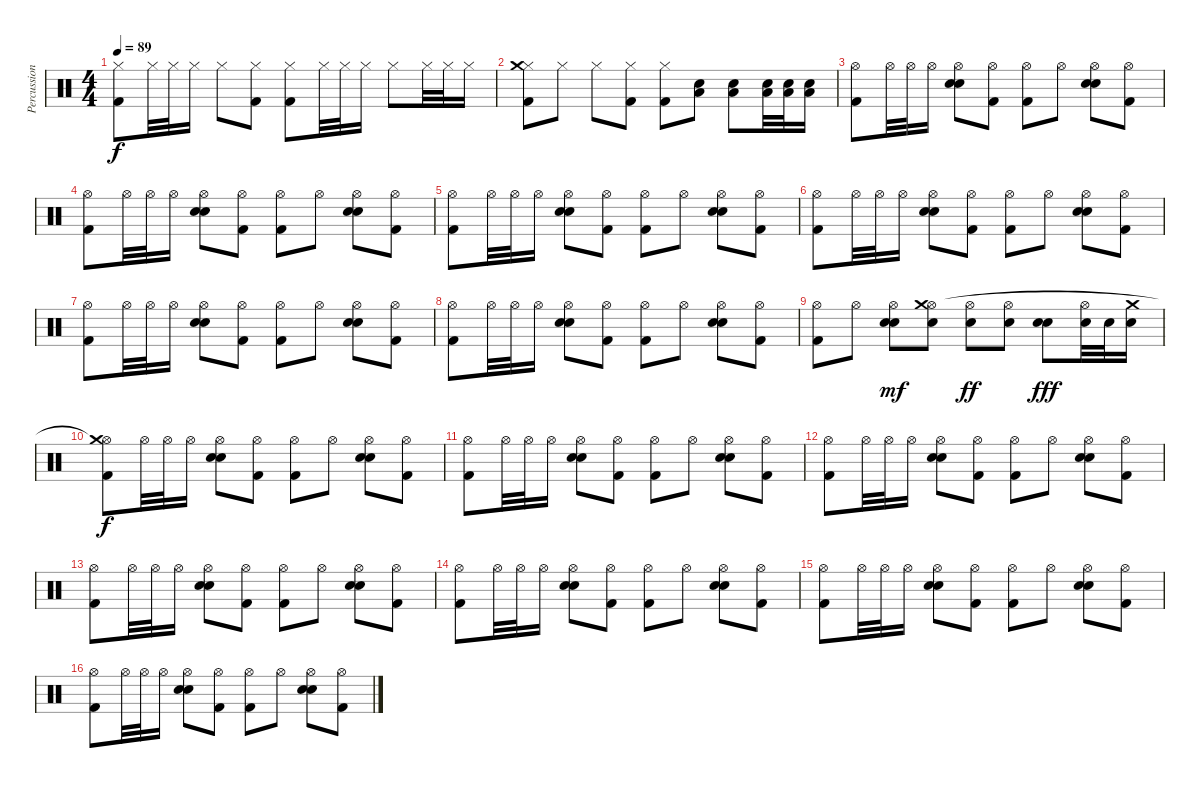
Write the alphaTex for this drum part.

\track ("Percussions" "Percussion") {instrument percussion}
\staff {score}
\articulation defaults
\ts (4 4)
\tempo 89
\clef neutral
\ks c
("Hi-Hat (closed)" "Kick (hit) 2").8{dy f} "Hi-Hat (closed)".32 "Hi-Hat (closed)".32 "Hi-Hat (closed)".16 "Hi-Hat (closed)".8 ("Hi-Hat (closed)" "Kick (hit) 2").8 ("Hi-Hat (closed)" "Kick (hit) 2").8 "Hi-Hat (closed)".32 "Hi-Hat (closed)".32 "Hi-Hat (closed)".16 "Hi-Hat (closed)".8 "Hi-Hat (closed)".32 "Hi-Hat (closed)".32 "Hi-Hat (closed)".16 |
("Hi-Hat (closed)" "Kick (hit) 2" "Crash medium (hit)").8 "Hi-Hat (closed)".8 "Hi-Hat (closed)".8 ("Hi-Hat (closed)" "Kick (hit) 2").8 ("Hi-Hat (closed)" "Kick (hit) 2").8 ("Snare (hit) 2" "Low Floor Tom (hit)").8 ("Snare (hit) 2" "Low Floor Tom (hit)").8 ("Snare (hit) 2" "Low Floor Tom (hit)").32 ("Snare (hit) 2" "Low Floor Tom (hit)").32 ("Snare (hit) 2" "Low Floor Tom (hit)").16 |
("Hi-Hat (open)" "Kick (hit) 2").8 "Hi-Hat (open)".32 "Hi-Hat (open)".32 "Hi-Hat (open)".16 ("Snare (hit) 2" "Electric Snare (hit)" "Hi-Hat (open)").8 ("Hi-Hat (open)" "Kick (hit) 2").8 ("Hi-Hat (open)" "Kick (hit) 2").8 "Hi-Hat (open)".8 ("Snare (hit) 2" "Electric Snare (hit)" "Hi-Hat (open)").8 ("Hi-Hat (open)" "Kick (hit) 2").8 |
("Hi-Hat (open)" "Kick (hit) 2").8 "Hi-Hat (open)".32 "Hi-Hat (open)".32 "Hi-Hat (open)".16 ("Snare (hit) 2" "Electric Snare (hit)" "Hi-Hat (open)").8 ("Hi-Hat (open)" "Kick (hit) 2").8 ("Hi-Hat (open)" "Kick (hit) 2").8 "Hi-Hat (open)".8 ("Snare (hit) 2" "Electric Snare (hit)" "Hi-Hat (open)").8 ("Hi-Hat (open)" "Kick (hit) 2").8 |
("Hi-Hat (open)" "Kick (hit) 2").8 "Hi-Hat (open)".32 "Hi-Hat (open)".32 "Hi-Hat (open)".16 ("Snare (hit) 2" "Electric Snare (hit)" "Hi-Hat (open)").8 ("Hi-Hat (open)" "Kick (hit) 2").8 ("Hi-Hat (open)" "Kick (hit) 2").8 "Hi-Hat (open)".8 ("Snare (hit) 2" "Electric Snare (hit)" "Hi-Hat (open)").8 ("Hi-Hat (open)" "Kick (hit) 2").8 |
("Hi-Hat (open)" "Kick (hit) 2").8 "Hi-Hat (open)".32 "Hi-Hat (open)".32 "Hi-Hat (open)".16 ("Snare (hit) 2" "Electric Snare (hit)" "Hi-Hat (open)").8 ("Hi-Hat (open)" "Kick (hit) 2").8 ("Hi-Hat (open)" "Kick (hit) 2").8 "Hi-Hat (open)".8 ("Snare (hit) 2" "Electric Snare (hit)" "Hi-Hat (open)").8 ("Hi-Hat (open)" "Kick (hit) 2").8 |
("Hi-Hat (open)" "Kick (hit) 2").8 "Hi-Hat (open)".32 "Hi-Hat (open)".32 "Hi-Hat (open)".16 ("Snare (hit) 2" "Electric Snare (hit)" "Hi-Hat (open)").8 ("Hi-Hat (open)" "Kick (hit) 2").8 ("Hi-Hat (open)" "Kick (hit) 2").8 "Hi-Hat (open)".8 ("Snare (hit) 2" "Electric Snare (hit)" "Hi-Hat (open)").8 ("Hi-Hat (open)" "Kick (hit) 2").8 |
("Hi-Hat (open)" "Kick (hit) 2").8 "Hi-Hat (open)".32 "Hi-Hat (open)".32 "Hi-Hat (open)".16 ("Snare (hit) 2" "Electric Snare (hit)" "Hi-Hat (open)").8 ("Hi-Hat (open)" "Kick (hit) 2").8 ("Hi-Hat (open)" "Kick (hit) 2").8 "Hi-Hat (open)".8 ("Snare (hit) 2" "Electric Snare (hit)" "Hi-Hat (open)").8 ("Hi-Hat (open)" "Kick (hit) 2").8 |
("Hi-Hat (open)" "Kick (hit) 2").8 "Hi-Hat (open)".8 ("Snare (hit) 2" "Electric Snare (hit)" "Hi-Hat (open)").8{dy mf} ("Hi-Hat (open)" "Electric Snare (hit)" "Crash medium (hit)").8 ("Hi-Hat (open)" "Electric Snare (hit)").8{dy ff} ("Hi-Hat (open)" "Electric Snare (hit)").8 ("Snare (hit) 2" "Electric Snare (hit)").8{dy fff} ("Hi-Hat (open)" "Electric Snare (hit)").32 "Electric Snare (hit)".32 ("Electric Snare (hit)" "Crash medium (hit)").16 |
("Hi-Hat (open)" "Kick (hit) 2" "Crash medium (hit)"{t}).8{dy f} "Hi-Hat (open)".32 "Hi-Hat (open)".32 "Hi-Hat (open)".16 ("Snare (hit) 2" "Electric Snare (hit)" "Hi-Hat (open)").8 ("Hi-Hat (open)" "Kick (hit) 2").8 ("Hi-Hat (open)" "Kick (hit) 2").8 "Hi-Hat (open)".8 ("Snare (hit) 2" "Electric Snare (hit)" "Hi-Hat (open)").8 ("Hi-Hat (open)" "Kick (hit) 2").8 |
("Hi-Hat (open)" "Kick (hit) 2").8 "Hi-Hat (open)".32 "Hi-Hat (open)".32 "Hi-Hat (open)".16 ("Snare (hit) 2" "Electric Snare (hit)" "Hi-Hat (open)").8 ("Hi-Hat (open)" "Kick (hit) 2").8 ("Hi-Hat (open)" "Kick (hit) 2").8 "Hi-Hat (open)".8 ("Snare (hit) 2" "Electric Snare (hit)" "Hi-Hat (open)").8 ("Hi-Hat (open)" "Kick (hit) 2").8 |
("Hi-Hat (open)" "Kick (hit) 2").8 "Hi-Hat (open)".32 "Hi-Hat (open)".32 "Hi-Hat (open)".16 ("Snare (hit) 2" "Electric Snare (hit)" "Hi-Hat (open)").8 ("Hi-Hat (open)" "Kick (hit) 2").8 ("Hi-Hat (open)" "Kick (hit) 2").8 "Hi-Hat (open)".8 ("Snare (hit) 2" "Electric Snare (hit)" "Hi-Hat (open)").8 ("Hi-Hat (open)" "Kick (hit) 2").8 |
("Hi-Hat (open)" "Kick (hit) 2").8 "Hi-Hat (open)".32 "Hi-Hat (open)".32 "Hi-Hat (open)".16 ("Snare (hit) 2" "Electric Snare (hit)" "Hi-Hat (open)").8 ("Hi-Hat (open)" "Kick (hit) 2").8 ("Hi-Hat (open)" "Kick (hit) 2").8 "Hi-Hat (open)".8 ("Snare (hit) 2" "Electric Snare (hit)" "Hi-Hat (open)").8 ("Hi-Hat (open)" "Kick (hit) 2").8 |
("Hi-Hat (open)" "Kick (hit) 2").8 "Hi-Hat (open)".32 "Hi-Hat (open)".32 "Hi-Hat (open)".16 ("Snare (hit) 2" "Electric Snare (hit)" "Hi-Hat (open)").8 ("Hi-Hat (open)" "Kick (hit) 2").8 ("Hi-Hat (open)" "Kick (hit) 2").8 "Hi-Hat (open)".8 ("Snare (hit) 2" "Electric Snare (hit)" "Hi-Hat (open)").8 ("Hi-Hat (open)" "Kick (hit) 2").8 |
("Hi-Hat (open)" "Kick (hit) 2").8 "Hi-Hat (open)".32 "Hi-Hat (open)".32 "Hi-Hat (open)".16 ("Snare (hit) 2" "Electric Snare (hit)" "Hi-Hat (open)").8 ("Hi-Hat (open)" "Kick (hit) 2").8 ("Hi-Hat (open)" "Kick (hit) 2").8 "Hi-Hat (open)".8 ("Snare (hit) 2" "Electric Snare (hit)" "Hi-Hat (open)").8 ("Hi-Hat (open)" "Kick (hit) 2").8 |
("Hi-Hat (open)" "Kick (hit) 2").8 "Hi-Hat (open)".32 "Hi-Hat (open)".32 "Hi-Hat (open)".16 ("Snare (hit) 2" "Electric Snare (hit)" "Hi-Hat (open)").8 ("Hi-Hat (open)" "Kick (hit) 2").8 ("Hi-Hat (open)" "Kick (hit) 2").8 "Hi-Hat (open)".8 ("Snare (hit) 2" "Electric Snare (hit)" "Hi-Hat (open)").8 ("Hi-Hat (open)" "Kick (hit) 2").8
